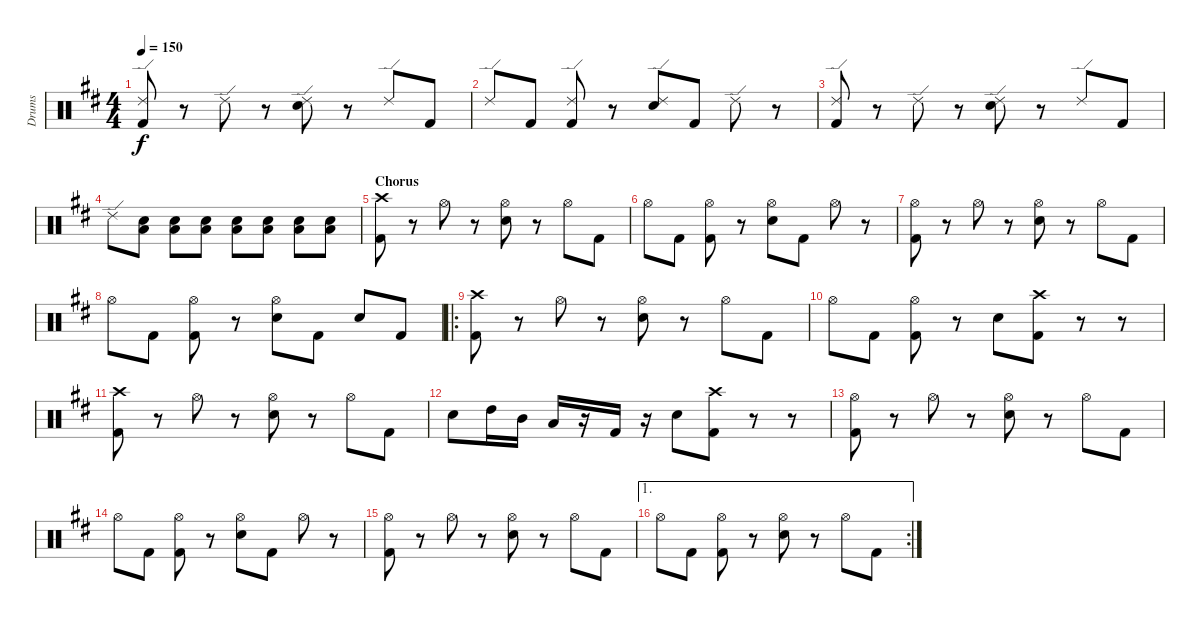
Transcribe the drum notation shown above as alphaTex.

\track ("Drums" "Drums") {instrument percussion}
\staff {score}
\articulation defaults
\ts (4 4)
\tempo 150
\clef neutral
\ks d
("Ride (edge) 2" "Kick (hit) 2").8{dy f} r.8 "Ride (edge) 2".8 r.8 ("Ride (edge) 2" "Snare (hit) 2").8 r.8 "Ride (edge) 2".8 "Kick (hit) 2".8 |
"Ride (edge) 2".8 "Kick (hit) 2".8 ("Ride (edge) 2" "Kick (hit) 2").8 r.8 ("Ride (edge) 2" "Snare (hit) 2").8 "Kick (hit) 2".8 "Ride (edge) 2".8 r.8 |
("Ride (edge) 2" "Kick (hit) 2").8 r.8 "Ride (edge) 2".8 r.8 ("Ride (edge) 2" "Snare (hit) 2").8 r.8 "Ride (edge) 2".8 "Kick (hit) 2".8 |
"Ride (edge) 2".8 ("Low Tom (hit)" "Snare (hit) 2").8 ("Low Tom (hit)" "Snare (hit) 2").8 ("Low Tom (hit)" "Snare (hit) 2").8 ("Low Tom (hit)" "Snare (hit) 2").8 ("Low Tom (hit)" "Snare (hit) 2").8 ("Low Tom (hit)" "Snare (hit) 2").8 ("Low Tom (hit)" "Snare (hit) 2").8 |
\section ("" "Chorus")
("Crash high (hit)" "Kick (hit) 2").8 r.8 "Hi-Hat (open)".8 r.8 ("Hi-Hat (open)" "Snare (hit) 2").8 r.8 "Hi-Hat (open)".8 "Kick (hit) 2".8 |
"Hi-Hat (open)".8 "Kick (hit) 2".8 ("Hi-Hat (open)" "Kick (hit) 2").8 r.8 ("Hi-Hat (open)" "Snare (hit) 2").8 "Kick (hit) 2".8 "Hi-Hat (open)".8 r.8 |
("Hi-Hat (open)" "Kick (hit) 2").8 r.8 "Hi-Hat (open)".8 r.8 ("Hi-Hat (open)" "Snare (hit) 2").8 r.8 "Hi-Hat (open)".8 "Kick (hit) 2".8 |
"Hi-Hat (open)".8 "Kick (hit) 2".8 ("Hi-Hat (open)" "Kick (hit) 2").8 r.8 ("Hi-Hat (open)" "Snare (hit) 2").8 "Kick (hit) 2".8 "Snare (hit) 2".8 "Kick (hit) 2".8 |
\ro
("Crash high (hit)" "Kick (hit) 2").8 r.8 "Hi-Hat (open)".8 r.8 ("Hi-Hat (open)" "Snare (hit) 2").8 r.8 "Hi-Hat (open)".8 "Kick (hit) 2".8 |
"Hi-Hat (open)".8 "Kick (hit) 2".8 ("Hi-Hat (open)" "Kick (hit) 2").8 r.8 "Snare (hit) 2".8 ("Crash high (hit)" "Kick (hit) 2").8 r.8 r.8 |
("Crash high (hit)" "Kick (hit) 2").8 r.8 "Hi-Hat (open)".8 r.8 ("Hi-Hat (open)" "Snare (hit) 2").8 r.8 "Hi-Hat (open)".8 "Kick (hit) 2".8 |
"Snare (hit) 2".8 "High Tom (hit)".16 "Mid Tom (hit)".16 "Low Tom (hit)".16 r.16 "Kick (hit) 2".16 r.16 "Snare (hit) 2".8 ("Crash high (hit)" "Kick (hit) 2").8 r.8 r.8 |
("Hi-Hat (open)" "Kick (hit) 2").8 r.8 "Hi-Hat (open)".8 r.8 ("Hi-Hat (open)" "Snare (hit) 2").8 r.8 "Hi-Hat (open)".8 "Kick (hit) 2".8 |
"Hi-Hat (open)".8 "Kick (hit) 2".8 ("Hi-Hat (open)" "Kick (hit) 2").8 r.8 ("Hi-Hat (open)" "Snare (hit) 2").8 "Kick (hit) 2".8 "Hi-Hat (open)".8 r.8 |
("Hi-Hat (open)" "Kick (hit) 2").8 r.8 "Hi-Hat (open)".8 r.8 ("Hi-Hat (open)" "Snare (hit) 2").8 r.8 "Hi-Hat (open)".8 "Kick (hit) 2".8 |
\ae 1
\rc 2 "Hi-Hat (open)".8 "Kick (hit) 2".8
("Hi-Hat (open)" "Kick (hit) 2").8 r.8 ("Hi-Hat (open)" "Snare (hit) 2").8 r.8 "Hi-Hat (open)".8 "Kick (hit) 2".8
